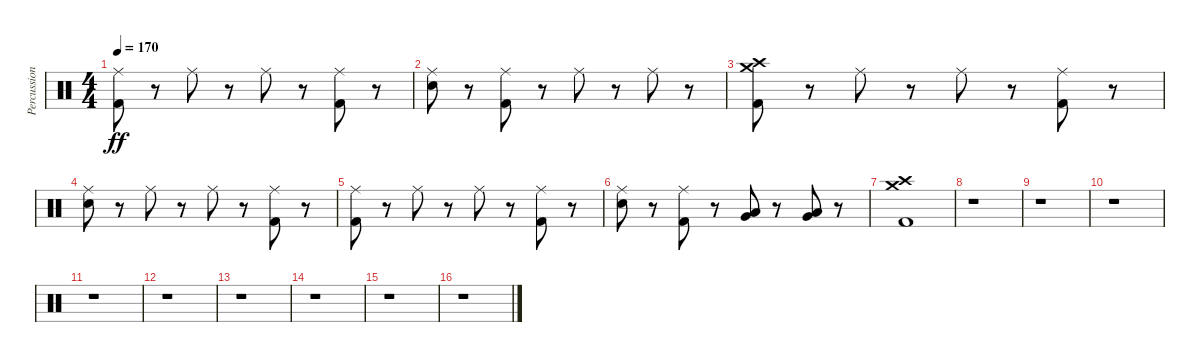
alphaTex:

\track ("Percussion" "Percussion") {instrument percussion}
\staff {score}
\articulation defaults
\ts (4 4)
\tempo 170
\clef neutral
\ks c
("Kick (hit) 2" "Ride (middle)").8{dy ff} r.8 "Ride (middle)".8 r.8 "Ride (middle)".8 r.8 ("Kick (hit) 2" "Ride (middle)").8 r.8 |
("Electric Snare (hit)" "Ride (middle)").8 r.8 ("Kick (hit) 2" "Ride (middle)").8 r.8 "Ride (middle)".8 r.8 "Ride (middle)".8 r.8 |
("Kick (hit) 2" "Crash high (hit)" "Crash medium (hit)").8 r.8 "Ride (middle)".8 r.8 "Ride (middle)".8 r.8 ("Kick (hit) 2" "Ride (middle)").8 r.8 |
("Electric Snare (hit)" "Ride (middle)").8 r.8 "Ride (middle)".8 r.8 "Ride (middle)".8 r.8 ("Kick (hit) 2" "Ride (middle)").8 r.8 |
("Kick (hit) 2" "Ride (middle)").8 r.8 "Ride (middle)".8 r.8 "Ride (middle)".8 r.8 ("Kick (hit) 2" "Ride (middle)").8 r.8 |
("Electric Snare (hit)" "Ride (middle)").8 r.8 ("Kick (hit) 2" "Ride (middle)").8 r.8 ("Very Low Tom (hit)" "Low Floor Tom (hit)").8 r.8 ("Very Low Tom (hit)" "Low Floor Tom (hit)").8 r.8 |
("Kick (hit) 2" "Crash high (hit)" "Crash medium (hit)").1 |
r.1 |
r.1 |
r.1 |
r.1 |
r.1 |
r.1 |
r.1 |
r.1 |
r.1
